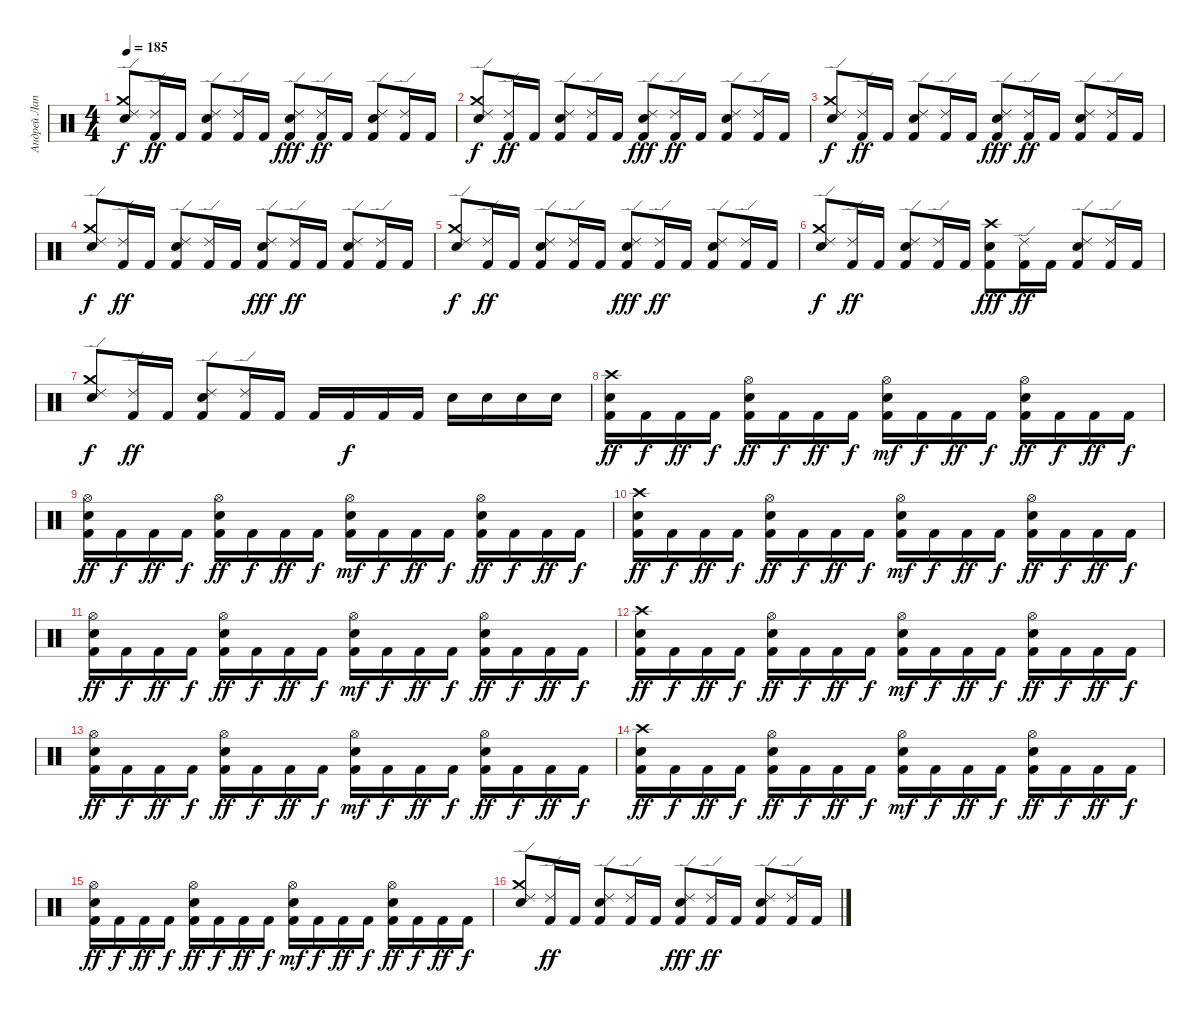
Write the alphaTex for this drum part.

\track ("Андрей Лаптев" "Андрей Лап") {instrument percussion}
\staff {score}
\articulation defaults
\ts (4 4)
\tempo 185
\clef neutral
\ks c
("Ride (edge) 2" "Crash medium (hit)" "Electric Snare (hit)").8{dy f} ("Kick (hit) 2" "Ride (edge) 2").16{dy ff} "Kick (hit) 2".16 ("Kick (hit) 2" "Electric Snare (hit)" "Ride (edge) 2").8 ("Kick (hit) 2" "Ride (edge) 2").16 "Kick (hit) 2".16 ("Kick (hit) 2" "Ride (edge) 2" "Electric Snare (hit)").8{dy fff} ("Kick (hit) 2" "Ride (edge) 2").16{dy ff} "Kick (hit) 2".16 ("Ride (edge) 2" "Electric Snare (hit)" "Kick (hit) 2").8 ("Kick (hit) 2" "Ride (edge) 2").16 "Kick (hit) 2".16 |
("Ride (edge) 2" "Crash medium (hit)" "Electric Snare (hit)").8{dy f} ("Kick (hit) 2" "Ride (edge) 2").16{dy ff} "Kick (hit) 2".16 ("Kick (hit) 2" "Electric Snare (hit)" "Ride (edge) 2").8 ("Kick (hit) 2" "Ride (edge) 2").16 "Kick (hit) 2".16 ("Kick (hit) 2" "Ride (edge) 2" "Electric Snare (hit)").8{dy fff} ("Kick (hit) 2" "Ride (edge) 2").16{dy ff} "Kick (hit) 2".16 ("Ride (edge) 2" "Electric Snare (hit)" "Kick (hit) 2").8 ("Kick (hit) 2" "Ride (edge) 2").16 "Kick (hit) 2".16 |
("Ride (edge) 2" "Crash medium (hit)" "Electric Snare (hit)").8{dy f} ("Kick (hit) 2" "Ride (edge) 2").16{dy ff} "Kick (hit) 2".16 ("Kick (hit) 2" "Electric Snare (hit)" "Ride (edge) 2").8 ("Kick (hit) 2" "Ride (edge) 2").16 "Kick (hit) 2".16 ("Kick (hit) 2" "Ride (edge) 2" "Electric Snare (hit)").8{dy fff} ("Kick (hit) 2" "Ride (edge) 2").16{dy ff} "Kick (hit) 2".16 ("Ride (edge) 2" "Electric Snare (hit)" "Kick (hit) 2").8 ("Kick (hit) 2" "Ride (edge) 2").16 "Kick (hit) 2".16 |
("Ride (edge) 2" "Crash medium (hit)" "Electric Snare (hit)").8{dy f} ("Kick (hit) 2" "Ride (edge) 2").16{dy ff} "Kick (hit) 2".16 ("Kick (hit) 2" "Electric Snare (hit)" "Ride (edge) 2").8 ("Kick (hit) 2" "Ride (edge) 2").16 "Kick (hit) 2".16 ("Kick (hit) 2" "Ride (edge) 2" "Electric Snare (hit)").8{dy fff} ("Kick (hit) 2" "Ride (edge) 2").16{dy ff} "Kick (hit) 2".16 ("Ride (edge) 2" "Electric Snare (hit)" "Kick (hit) 2").8 ("Kick (hit) 2" "Ride (edge) 2").16 "Kick (hit) 2".16 |
("Ride (edge) 2" "Crash medium (hit)" "Electric Snare (hit)").8{dy f} ("Kick (hit) 2" "Ride (edge) 2").16{dy ff} "Kick (hit) 2".16 ("Kick (hit) 2" "Electric Snare (hit)" "Ride (edge) 2").8 ("Kick (hit) 2" "Ride (edge) 2").16 "Kick (hit) 2".16 ("Kick (hit) 2" "Ride (edge) 2" "Electric Snare (hit)").8{dy fff} ("Kick (hit) 2" "Ride (edge) 2").16{dy ff} "Kick (hit) 2".16 ("Ride (edge) 2" "Electric Snare (hit)" "Kick (hit) 2").8 ("Kick (hit) 2" "Ride (edge) 2").16 "Kick (hit) 2".16 |
("Ride (edge) 2" "Crash medium (hit)" "Electric Snare (hit)").8{dy f} ("Kick (hit) 2" "Ride (edge) 2").16{dy ff} "Kick (hit) 2".16 ("Kick (hit) 2" "Electric Snare (hit)" "Ride (edge) 2").8 ("Kick (hit) 2" "Ride (edge) 2").16 "Kick (hit) 2".16 ("Kick (hit) 2" "Crash high (hit)" "Electric Snare (hit)").8{dy fff} ("Kick (hit) 2" "Ride (edge) 2").16{dy ff} "Kick (hit) 2".16 ("Ride (edge) 2" "Electric Snare (hit)" "Kick (hit) 2").8 ("Kick (hit) 2" "Ride (edge) 2").16 "Kick (hit) 2".16 |
("Ride (edge) 2" "Crash medium (hit)" "Electric Snare (hit)").8{dy f} ("Kick (hit) 2" "Ride (edge) 2").16{dy ff} "Kick (hit) 2".16 ("Kick (hit) 2" "Electric Snare (hit)" "Ride (edge) 2").8 ("Kick (hit) 2" "Ride (edge) 2").16 "Kick (hit) 2".16 "Kick (hit) 2".16 "Kick (hit) 2".16{dy f} "Kick (hit) 2".16 "Kick (hit) 2".16 "Electric Snare (hit)".16 "Electric Snare (hit)".16 "Electric Snare (hit)".16 "Electric Snare (hit)".16 |
("Crash high (hit)" "Kick (hit) 2" "Electric Snare (hit)").16{dy ff} "Kick (hit) 2".16{dy f} "Kick (hit) 2".16{dy ff} "Kick (hit) 2".16{dy f} ("Hi-Hat (open)" "Electric Snare (hit)" "Kick (hit) 2").16{dy ff} "Kick (hit) 2".16{dy f} "Kick (hit) 2".16{dy ff} "Kick (hit) 2".16{dy f} ("Kick (hit) 2" "Hi-Hat (open)" "Electric Snare (hit)").16{dy mf} "Kick (hit) 2".16{dy f} "Kick (hit) 2".16{dy ff} "Kick (hit) 2".16{dy f} ("Electric Snare (hit)" "Hi-Hat (open)" "Kick (hit) 2").16{dy ff} "Kick (hit) 2".16{dy f} "Kick (hit) 2".16{dy ff} "Kick (hit) 2".16{dy f} |
("Electric Snare (hit)" "Kick (hit) 2" "Hi-Hat (open)").16{dy ff} "Kick (hit) 2".16{dy f} "Kick (hit) 2".16{dy ff} "Kick (hit) 2".16{dy f} ("Hi-Hat (open)" "Electric Snare (hit)" "Kick (hit) 2").16{dy ff} "Kick (hit) 2".16{dy f} "Kick (hit) 2".16{dy ff} "Kick (hit) 2".16{dy f} ("Kick (hit) 2" "Hi-Hat (open)" "Electric Snare (hit)").16{dy mf} "Kick (hit) 2".16{dy f} "Kick (hit) 2".16{dy ff} "Kick (hit) 2".16{dy f} ("Electric Snare (hit)" "Hi-Hat (open)" "Kick (hit) 2").16{dy ff} "Kick (hit) 2".16{dy f} "Kick (hit) 2".16{dy ff} "Kick (hit) 2".16{dy f} |
("Crash high (hit)" "Kick (hit) 2" "Electric Snare (hit)").16{dy ff} "Kick (hit) 2".16{dy f} "Kick (hit) 2".16{dy ff} "Kick (hit) 2".16{dy f} ("Hi-Hat (open)" "Electric Snare (hit)" "Kick (hit) 2").16{dy ff} "Kick (hit) 2".16{dy f} "Kick (hit) 2".16{dy ff} "Kick (hit) 2".16{dy f} ("Kick (hit) 2" "Hi-Hat (open)" "Electric Snare (hit)").16{dy mf} "Kick (hit) 2".16{dy f} "Kick (hit) 2".16{dy ff} "Kick (hit) 2".16{dy f} ("Electric Snare (hit)" "Hi-Hat (open)" "Kick (hit) 2").16{dy ff} "Kick (hit) 2".16{dy f} "Kick (hit) 2".16{dy ff} "Kick (hit) 2".16{dy f} |
("Electric Snare (hit)" "Kick (hit) 2" "Hi-Hat (open)").16{dy ff} "Kick (hit) 2".16{dy f} "Kick (hit) 2".16{dy ff} "Kick (hit) 2".16{dy f} ("Hi-Hat (open)" "Electric Snare (hit)" "Kick (hit) 2").16{dy ff} "Kick (hit) 2".16{dy f} "Kick (hit) 2".16{dy ff} "Kick (hit) 2".16{dy f} ("Kick (hit) 2" "Hi-Hat (open)" "Electric Snare (hit)").16{dy mf} "Kick (hit) 2".16{dy f} "Kick (hit) 2".16{dy ff} "Kick (hit) 2".16{dy f} ("Electric Snare (hit)" "Hi-Hat (open)" "Kick (hit) 2").16{dy ff} "Kick (hit) 2".16{dy f} "Kick (hit) 2".16{dy ff} "Kick (hit) 2".16{dy f} |
("Crash high (hit)" "Kick (hit) 2" "Electric Snare (hit)").16{dy ff} "Kick (hit) 2".16{dy f} "Kick (hit) 2".16{dy ff} "Kick (hit) 2".16{dy f} ("Hi-Hat (open)" "Electric Snare (hit)" "Kick (hit) 2").16{dy ff} "Kick (hit) 2".16{dy f} "Kick (hit) 2".16{dy ff} "Kick (hit) 2".16{dy f} ("Kick (hit) 2" "Hi-Hat (open)" "Electric Snare (hit)").16{dy mf} "Kick (hit) 2".16{dy f} "Kick (hit) 2".16{dy ff} "Kick (hit) 2".16{dy f} ("Electric Snare (hit)" "Hi-Hat (open)" "Kick (hit) 2").16{dy ff} "Kick (hit) 2".16{dy f} "Kick (hit) 2".16{dy ff} "Kick (hit) 2".16{dy f} |
("Electric Snare (hit)" "Kick (hit) 2" "Hi-Hat (open)").16{dy ff} "Kick (hit) 2".16{dy f} "Kick (hit) 2".16{dy ff} "Kick (hit) 2".16{dy f} ("Hi-Hat (open)" "Electric Snare (hit)" "Kick (hit) 2").16{dy ff} "Kick (hit) 2".16{dy f} "Kick (hit) 2".16{dy ff} "Kick (hit) 2".16{dy f} ("Kick (hit) 2" "Hi-Hat (open)" "Electric Snare (hit)").16{dy mf} "Kick (hit) 2".16{dy f} "Kick (hit) 2".16{dy ff} "Kick (hit) 2".16{dy f} ("Electric Snare (hit)" "Hi-Hat (open)" "Kick (hit) 2").16{dy ff} "Kick (hit) 2".16{dy f} "Kick (hit) 2".16{dy ff} "Kick (hit) 2".16{dy f} |
("Crash high (hit)" "Kick (hit) 2" "Electric Snare (hit)").16{dy ff} "Kick (hit) 2".16{dy f} "Kick (hit) 2".16{dy ff} "Kick (hit) 2".16{dy f} ("Hi-Hat (open)" "Electric Snare (hit)" "Kick (hit) 2").16{dy ff} "Kick (hit) 2".16{dy f} "Kick (hit) 2".16{dy ff} "Kick (hit) 2".16{dy f} ("Kick (hit) 2" "Hi-Hat (open)" "Electric Snare (hit)").16{dy mf} "Kick (hit) 2".16{dy f} "Kick (hit) 2".16{dy ff} "Kick (hit) 2".16{dy f} ("Electric Snare (hit)" "Hi-Hat (open)" "Kick (hit) 2").16{dy ff} "Kick (hit) 2".16{dy f} "Kick (hit) 2".16{dy ff} "Kick (hit) 2".16{dy f} |
("Electric Snare (hit)" "Kick (hit) 2" "Hi-Hat (open)").16{dy ff} "Kick (hit) 2".16{dy f} "Kick (hit) 2".16{dy ff} "Kick (hit) 2".16{dy f} ("Hi-Hat (open)" "Electric Snare (hit)" "Kick (hit) 2").16{dy ff} "Kick (hit) 2".16{dy f} "Kick (hit) 2".16{dy ff} "Kick (hit) 2".16{dy f} ("Kick (hit) 2" "Hi-Hat (open)" "Electric Snare (hit)").16{dy mf} "Kick (hit) 2".16{dy f} "Kick (hit) 2".16{dy ff} "Kick (hit) 2".16{dy f} ("Electric Snare (hit)" "Hi-Hat (open)" "Kick (hit) 2").16{dy ff} "Kick (hit) 2".16{dy f} "Kick (hit) 2".16{dy ff} "Kick (hit) 2".16{dy f} |
("Ride (edge) 2" "Crash medium (hit)" "Electric Snare (hit)").8 ("Kick (hit) 2" "Ride (edge) 2").16{dy ff} "Kick (hit) 2".16 ("Kick (hit) 2" "Electric Snare (hit)" "Ride (edge) 2").8 ("Kick (hit) 2" "Ride (edge) 2").16 "Kick (hit) 2".16 ("Kick (hit) 2" "Ride (edge) 2" "Electric Snare (hit)").8{dy fff} ("Kick (hit) 2" "Ride (edge) 2").16{dy ff} "Kick (hit) 2".16 ("Ride (edge) 2" "Electric Snare (hit)" "Kick (hit) 2").8 ("Kick (hit) 2" "Ride (edge) 2").16 "Kick (hit) 2".16
